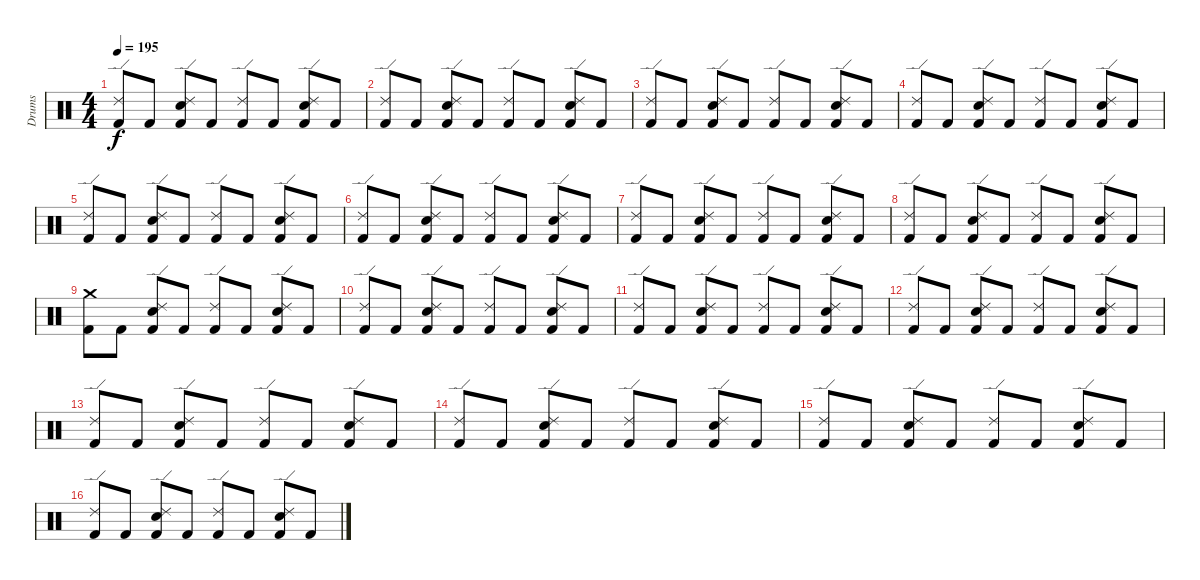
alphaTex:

\track ("Drums" "Drums") {instrument percussion}
\staff {score}
\articulation defaults
\ts (4 4)
\tempo 195
\clef neutral
\ks c
("Ride (edge) 2" "Kick (hit) 2").8{dy f} "Kick (hit) 2".8 ("Ride (edge) 2" "Snare (hit) 2" "Kick (hit) 2").8 "Kick (hit) 2".8 ("Ride (edge) 2" "Kick (hit) 2").8 "Kick (hit) 2".8 ("Ride (edge) 2" "Snare (hit) 2" "Kick (hit) 2").8 "Kick (hit) 2".8 |
("Ride (edge) 2" "Kick (hit) 2").8 "Kick (hit) 2".8 ("Ride (edge) 2" "Snare (hit) 2" "Kick (hit) 2").8 "Kick (hit) 2".8 ("Ride (edge) 2" "Kick (hit) 2").8 "Kick (hit) 2".8 ("Ride (edge) 2" "Snare (hit) 2" "Kick (hit) 2").8 "Kick (hit) 2".8 |
("Ride (edge) 2" "Kick (hit) 2").8 "Kick (hit) 2".8 ("Ride (edge) 2" "Snare (hit) 2" "Kick (hit) 2").8 "Kick (hit) 2".8 ("Ride (edge) 2" "Kick (hit) 2").8 "Kick (hit) 2".8 ("Ride (edge) 2" "Snare (hit) 2" "Kick (hit) 2").8 "Kick (hit) 2".8 |
("Ride (edge) 2" "Kick (hit) 2").8 "Kick (hit) 2".8 ("Ride (edge) 2" "Snare (hit) 2" "Kick (hit) 2").8 "Kick (hit) 2".8 ("Ride (edge) 2" "Kick (hit) 2").8 "Kick (hit) 2".8 ("Ride (edge) 2" "Snare (hit) 2" "Kick (hit) 2").8 "Kick (hit) 2".8 |
("Ride (edge) 2" "Kick (hit) 2").8 "Kick (hit) 2".8 ("Ride (edge) 2" "Snare (hit) 2" "Kick (hit) 2").8 "Kick (hit) 2".8 ("Ride (edge) 2" "Kick (hit) 2").8 "Kick (hit) 2".8 ("Ride (edge) 2" "Snare (hit) 2" "Kick (hit) 2").8 "Kick (hit) 2".8 |
("Ride (edge) 2" "Kick (hit) 2").8 "Kick (hit) 2".8 ("Ride (edge) 2" "Snare (hit) 2" "Kick (hit) 2").8 "Kick (hit) 2".8 ("Ride (edge) 2" "Kick (hit) 2").8 "Kick (hit) 2".8 ("Ride (edge) 2" "Snare (hit) 2" "Kick (hit) 2").8 "Kick (hit) 2".8 |
("Ride (edge) 2" "Kick (hit) 2").8 "Kick (hit) 2".8 ("Ride (edge) 2" "Snare (hit) 2" "Kick (hit) 2").8 "Kick (hit) 2".8 ("Ride (edge) 2" "Kick (hit) 2").8 "Kick (hit) 2".8 ("Ride (edge) 2" "Snare (hit) 2" "Kick (hit) 2").8 "Kick (hit) 2".8 |
("Ride (edge) 2" "Kick (hit) 2").8 "Kick (hit) 2".8 ("Ride (edge) 2" "Snare (hit) 2" "Kick (hit) 2").8 "Kick (hit) 2".8 ("Ride (edge) 2" "Kick (hit) 2").8 "Kick (hit) 2".8 ("Ride (edge) 2" "Snare (hit) 2" "Kick (hit) 2").8 "Kick (hit) 2".8 |
("Crash medium (hit)" "Kick (hit) 2").8 "Kick (hit) 2".8 ("Ride (edge) 2" "Snare (hit) 2" "Kick (hit) 2").8 "Kick (hit) 2".8 ("Ride (edge) 2" "Kick (hit) 2").8 "Kick (hit) 2".8 ("Ride (edge) 2" "Snare (hit) 2" "Kick (hit) 2").8 "Kick (hit) 2".8 |
("Ride (edge) 2" "Kick (hit) 2").8 "Kick (hit) 2".8 ("Ride (edge) 2" "Snare (hit) 2" "Kick (hit) 2").8 "Kick (hit) 2".8 ("Ride (edge) 2" "Kick (hit) 2").8 "Kick (hit) 2".8 ("Ride (edge) 2" "Snare (hit) 2" "Kick (hit) 2").8 "Kick (hit) 2".8 |
("Ride (edge) 2" "Kick (hit) 2").8 "Kick (hit) 2".8 ("Ride (edge) 2" "Snare (hit) 2" "Kick (hit) 2").8 "Kick (hit) 2".8 ("Ride (edge) 2" "Kick (hit) 2").8 "Kick (hit) 2".8 ("Ride (edge) 2" "Snare (hit) 2" "Kick (hit) 2").8 "Kick (hit) 2".8 |
("Ride (edge) 2" "Kick (hit) 2").8 "Kick (hit) 2".8 ("Ride (edge) 2" "Snare (hit) 2" "Kick (hit) 2").8 "Kick (hit) 2".8 ("Ride (edge) 2" "Kick (hit) 2").8 "Kick (hit) 2".8 ("Ride (edge) 2" "Snare (hit) 2" "Kick (hit) 2").8 "Kick (hit) 2".8 |
("Ride (edge) 2" "Kick (hit) 2").8 "Kick (hit) 2".8 ("Ride (edge) 2" "Snare (hit) 2" "Kick (hit) 2").8 "Kick (hit) 2".8 ("Ride (edge) 2" "Kick (hit) 2").8 "Kick (hit) 2".8 ("Ride (edge) 2" "Snare (hit) 2" "Kick (hit) 2").8 "Kick (hit) 2".8 |
("Ride (edge) 2" "Kick (hit) 2").8 "Kick (hit) 2".8 ("Ride (edge) 2" "Snare (hit) 2" "Kick (hit) 2").8 "Kick (hit) 2".8 ("Ride (edge) 2" "Kick (hit) 2").8 "Kick (hit) 2".8 ("Ride (edge) 2" "Snare (hit) 2" "Kick (hit) 2").8 "Kick (hit) 2".8 |
("Ride (edge) 2" "Kick (hit) 2").8 "Kick (hit) 2".8 ("Ride (edge) 2" "Snare (hit) 2" "Kick (hit) 2").8 "Kick (hit) 2".8 ("Ride (edge) 2" "Kick (hit) 2").8 "Kick (hit) 2".8 ("Ride (edge) 2" "Snare (hit) 2" "Kick (hit) 2").8 "Kick (hit) 2".8 |
("Ride (edge) 2" "Kick (hit) 2").8 "Kick (hit) 2".8 ("Ride (edge) 2" "Snare (hit) 2" "Kick (hit) 2").8 "Kick (hit) 2".8 ("Ride (edge) 2" "Kick (hit) 2").8 "Kick (hit) 2".8 ("Ride (edge) 2" "Snare (hit) 2" "Kick (hit) 2").8 "Kick (hit) 2".8
